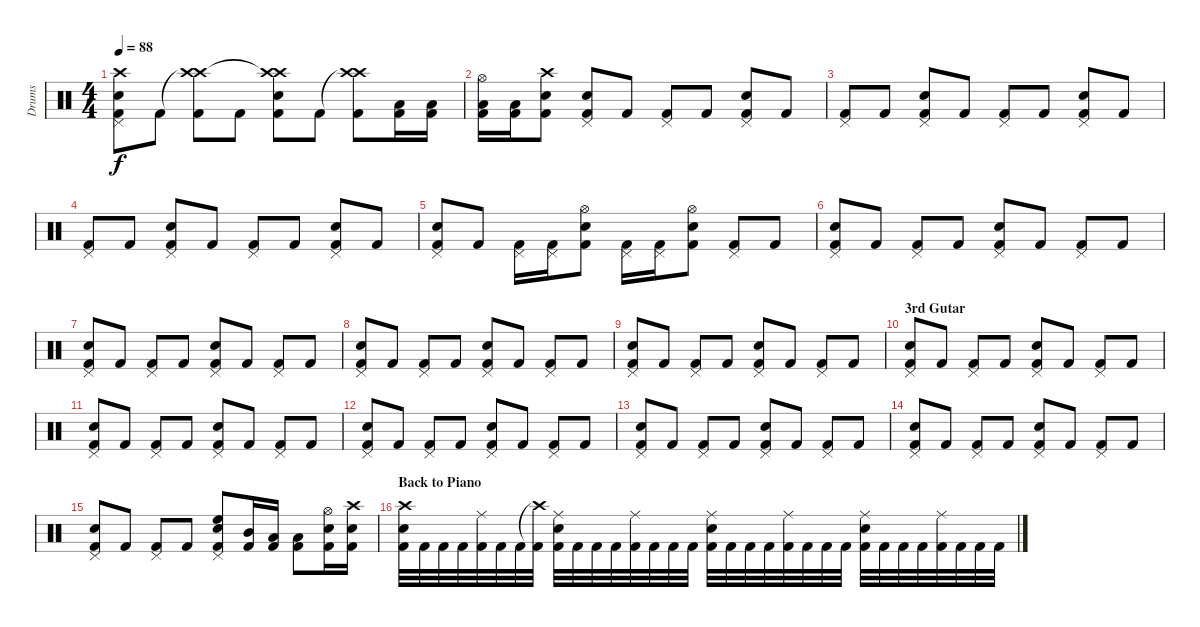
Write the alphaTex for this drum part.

\track ("Drums" "Drums") {instrument percussion}
\staff {score}
\articulation defaults
\ts (4 4)
\tempo 88
\clef neutral
\ks c
("Crash high (hit)" "Pedal Hi-Hat (hit)"{t} "Kick (hit) 2" "Electric Snare (hit)").8{dy f} "Kick (hit) 2".8 ("Crash high (hit)"{t} "Crash high (hit)" "Kick (hit) 2").8 "Kick (hit) 2".8 ("Crash high (hit)" "Crash high (hit)"{t} "Kick (hit) 2" "Electric Snare (hit)").8 "Kick (hit) 2".8 ("Crash high (hit)"{t} "Crash high (hit)" "Kick (hit) 2").8 ("Kick (hit) 2" "Low Tom (hit)").16 ("Kick (hit) 2" "Low Floor Tom (hit)").16 |
("Hi-Hat (open)" "Kick (hit) 2" "Low Floor Tom (hit)").16 ("Kick (hit) 2" "Low Floor Tom (hit)").16 ("Crash high (hit)" "Kick (hit) 2" "Electric Snare (hit)").8 ("Pedal Hi-Hat (hit)" "Kick (hit) 2" "Electric Snare (hit)").8 "Kick (hit) 2".8 ("Pedal Hi-Hat (hit)" "Kick (hit) 2").8 "Kick (hit) 2".8 ("Pedal Hi-Hat (hit)" "Kick (hit) 2" "Electric Snare (hit)").8 "Kick (hit) 2".8 |
("Pedal Hi-Hat (hit)" "Kick (hit) 2").8 "Kick (hit) 2".8 ("Pedal Hi-Hat (hit)" "Kick (hit) 2" "Electric Snare (hit)").8 "Kick (hit) 2".8 ("Pedal Hi-Hat (hit)" "Kick (hit) 2").8 "Kick (hit) 2".8 ("Pedal Hi-Hat (hit)" "Kick (hit) 2" "Electric Snare (hit)").8 "Kick (hit) 2".8 |
("Pedal Hi-Hat (hit)" "Kick (hit) 2").8 "Kick (hit) 2".8 ("Pedal Hi-Hat (hit)" "Kick (hit) 2" "Electric Snare (hit)").8 "Kick (hit) 2".8 ("Pedal Hi-Hat (hit)" "Kick (hit) 2").8 "Kick (hit) 2".8 ("Pedal Hi-Hat (hit)" "Kick (hit) 2" "Electric Snare (hit)").8 "Kick (hit) 2".8 |
("Pedal Hi-Hat (hit)" "Kick (hit) 2" "Electric Snare (hit)").8 "Kick (hit) 2".8 ("Pedal Hi-Hat (hit)" "Kick (hit) 2").16 ("Pedal Hi-Hat (hit)" "Kick (hit) 2").16 ("Hi-Hat (open)" "Kick (hit) 2" "Electric Snare (hit)").8 ("Pedal Hi-Hat (hit)" "Kick (hit) 2").16 ("Pedal Hi-Hat (hit)" "Kick (hit) 2").16 ("Hi-Hat (open)" "Kick (hit) 2" "Electric Snare (hit)").8 ("Pedal Hi-Hat (hit)" "Kick (hit) 2").8 "Kick (hit) 2".8 |
("Pedal Hi-Hat (hit)" "Kick (hit) 2" "Electric Snare (hit)").8 "Kick (hit) 2".8 ("Pedal Hi-Hat (hit)" "Kick (hit) 2").8 "Kick (hit) 2".8 ("Pedal Hi-Hat (hit)" "Kick (hit) 2" "Electric Snare (hit)").8 "Kick (hit) 2".8 ("Pedal Hi-Hat (hit)" "Kick (hit) 2").8 "Kick (hit) 2".8 |
("Pedal Hi-Hat (hit)" "Kick (hit) 2" "Electric Snare (hit)").8 "Kick (hit) 2".8 ("Pedal Hi-Hat (hit)" "Kick (hit) 2").8 "Kick (hit) 2".8 ("Pedal Hi-Hat (hit)" "Kick (hit) 2" "Electric Snare (hit)").8 "Kick (hit) 2".8 ("Pedal Hi-Hat (hit)" "Kick (hit) 2").8 "Kick (hit) 2".8 |
("Pedal Hi-Hat (hit)" "Kick (hit) 2" "Electric Snare (hit)").8 "Kick (hit) 2".8 ("Pedal Hi-Hat (hit)" "Kick (hit) 2").8 "Kick (hit) 2".8 ("Pedal Hi-Hat (hit)" "Kick (hit) 2" "Electric Snare (hit)").8 "Kick (hit) 2".8 ("Pedal Hi-Hat (hit)" "Kick (hit) 2").8 "Kick (hit) 2".8 |
("Pedal Hi-Hat (hit)" "Kick (hit) 2" "Electric Snare (hit)").8 "Kick (hit) 2".8 ("Pedal Hi-Hat (hit)" "Kick (hit) 2").8 "Kick (hit) 2".8 ("Pedal Hi-Hat (hit)" "Kick (hit) 2" "Electric Snare (hit)").8 "Kick (hit) 2".8 ("Pedal Hi-Hat (hit)" "Kick (hit) 2").8 "Kick (hit) 2".8 |
\section ("" "3rd Gutar")
("Pedal Hi-Hat (hit)" "Kick (hit) 2" "Electric Snare (hit)").8 "Kick (hit) 2".8 ("Pedal Hi-Hat (hit)" "Kick (hit) 2").8 "Kick (hit) 2".8 ("Pedal Hi-Hat (hit)" "Kick (hit) 2" "Electric Snare (hit)").8 "Kick (hit) 2".8 ("Pedal Hi-Hat (hit)" "Kick (hit) 2").8 "Kick (hit) 2".8 |
("Pedal Hi-Hat (hit)" "Kick (hit) 2" "Electric Snare (hit)").8 "Kick (hit) 2".8 ("Pedal Hi-Hat (hit)" "Kick (hit) 2").8 "Kick (hit) 2".8 ("Pedal Hi-Hat (hit)" "Kick (hit) 2" "Electric Snare (hit)").8 "Kick (hit) 2".8 ("Pedal Hi-Hat (hit)" "Kick (hit) 2").8 "Kick (hit) 2".8 |
("Pedal Hi-Hat (hit)" "Kick (hit) 2" "Electric Snare (hit)").8 "Kick (hit) 2".8 ("Pedal Hi-Hat (hit)" "Kick (hit) 2").8 "Kick (hit) 2".8 ("Pedal Hi-Hat (hit)" "Kick (hit) 2" "Electric Snare (hit)").8 "Kick (hit) 2".8 ("Pedal Hi-Hat (hit)" "Kick (hit) 2").8 "Kick (hit) 2".8 |
("Pedal Hi-Hat (hit)" "Kick (hit) 2" "Electric Snare (hit)").8 "Kick (hit) 2".8 ("Pedal Hi-Hat (hit)" "Kick (hit) 2").8 "Kick (hit) 2".8 ("Pedal Hi-Hat (hit)" "Kick (hit) 2" "Electric Snare (hit)").8 "Kick (hit) 2".8 ("Pedal Hi-Hat (hit)" "Kick (hit) 2").8 "Kick (hit) 2".8 |
("Pedal Hi-Hat (hit)" "Kick (hit) 2" "Electric Snare (hit)").8 "Kick (hit) 2".8 ("Pedal Hi-Hat (hit)" "Kick (hit) 2").8 "Kick (hit) 2".8 ("Pedal Hi-Hat (hit)" "Kick (hit) 2" "Electric Snare (hit)").8 "Kick (hit) 2".8 ("Pedal Hi-Hat (hit)" "Kick (hit) 2").8 "Kick (hit) 2".8 |
("Pedal Hi-Hat (hit)" "Kick (hit) 2" "Electric Snare (hit)").8 "Kick (hit) 2".8 ("Pedal Hi-Hat (hit)" "Kick (hit) 2").8 "Kick (hit) 2".8 ("Pedal Hi-Hat (hit)" "Kick (hit) 2" "Electric Snare (hit)" "High Floor Tom (hit)").8 ("Kick (hit) 2" "Mid Tom (hit)").16 ("Kick (hit) 2" "Low Tom (hit)").16 ("Kick (hit) 2" "Low Floor Tom (hit)").8 ("Hi-Hat (open)" "Kick (hit) 2" "Snare (hit) 2").16 ("Crash high (hit)" "Kick (hit) 2" "Snare (hit) 2").16 |
\section ("" "Back to Piano")
("Crash high (hit)" "Kick (hit) 2" "Electric Snare (hit)").32 "Kick (hit) 2".32 "Kick (hit) 2".32 "Kick (hit) 2".32 ("Ride (middle)" "Kick (hit) 2").32 "Kick (hit) 2".32 "Kick (hit) 2".32 ("Crash high (hit)"{t} "Kick (hit) 2").32 ("Ride (middle)" "Kick (hit) 2" "Electric Snare (hit)").32 "Kick (hit) 2".32 "Kick (hit) 2".32 "Kick (hit) 2".32 ("Ride (middle)" "Kick (hit) 2").32 "Kick (hit) 2".32 "Kick (hit) 2".32 "Kick (hit) 2".32 ("Ride (middle)" "Kick (hit) 2" "Electric Snare (hit)").32 "Kick (hit) 2".32 "Kick (hit) 2".32 "Kick (hit) 2".32 ("Ride (middle)" "Kick (hit) 2").32 "Kick (hit) 2".32 "Kick (hit) 2".32 "Kick (hit) 2".32 ("Ride (middle)" "Kick (hit) 2" "Electric Snare (hit)").32 "Kick (hit) 2".32 "Kick (hit) 2".32 "Kick (hit) 2".32 ("Ride (middle)" "Kick (hit) 2").32 "Kick (hit) 2".32 "Kick (hit) 2".32 "Kick (hit) 2".32
